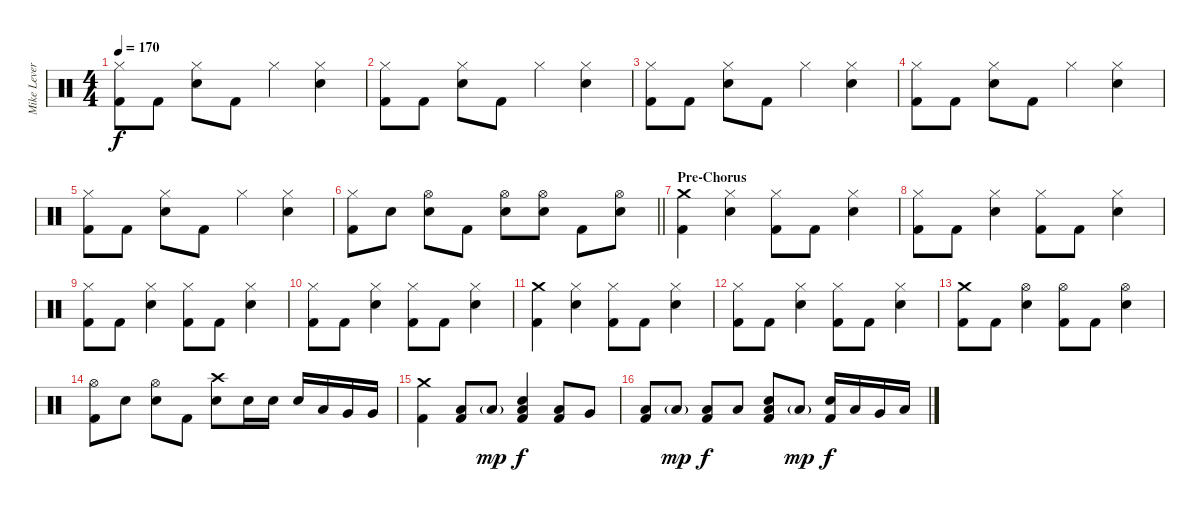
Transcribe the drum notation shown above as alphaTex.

\track ("Mike Leverence - Drums" "Mike Lever") {instrument percussion}
\staff {score}
\articulation defaults
\ts (4 4)
\tempo 170
\clef neutral
\ks c
("Hi-Hat (closed)" "Kick (hit) 2").8{dy f} "Kick (hit) 2".8 ("Hi-Hat (closed)" "Electric Snare (hit)").8 "Kick (hit) 2".8 "Hi-Hat (closed)".4 ("Hi-Hat (closed)" "Electric Snare (hit)").4 |
("Hi-Hat (closed)" "Kick (hit) 2").8 "Kick (hit) 2".8 ("Hi-Hat (closed)" "Electric Snare (hit)").8 "Kick (hit) 2".8 "Hi-Hat (closed)".4 ("Hi-Hat (closed)" "Electric Snare (hit)").4 |
("Hi-Hat (closed)" "Kick (hit) 2").8 "Kick (hit) 2".8 ("Hi-Hat (closed)" "Electric Snare (hit)").8 "Kick (hit) 2".8 "Hi-Hat (closed)".4 ("Hi-Hat (closed)" "Electric Snare (hit)").4 |
("Hi-Hat (closed)" "Kick (hit) 2").8 "Kick (hit) 2".8 ("Hi-Hat (closed)" "Electric Snare (hit)").8 "Kick (hit) 2".8 "Hi-Hat (closed)".4 ("Hi-Hat (closed)" "Electric Snare (hit)").4 |
("Hi-Hat (closed)" "Kick (hit) 2").8 "Kick (hit) 2".8 ("Hi-Hat (closed)" "Electric Snare (hit)").8 "Kick (hit) 2".8 "Hi-Hat (closed)".4 ("Hi-Hat (closed)" "Electric Snare (hit)").4 |
\barLineRight lightlight
("Hi-Hat (closed)" "Kick (hit) 2").8 "Electric Snare (hit)".8 ("Hi-Hat (open)" "Electric Snare (hit)").8 "Kick (hit) 2".8 ("Hi-Hat (open)" "Electric Snare (hit)").8 ("Hi-Hat (open)" "Electric Snare (hit)").8 "Kick (hit) 2".8 ("Hi-Hat (open)" "Electric Snare (hit)").8 |
\section ("" "Pre-Chorus")
("Crash medium (hit)" "Kick (hit) 2").4 ("Hi-Hat (closed)" "Electric Snare (hit)").4 ("Hi-Hat (closed)" "Kick (hit) 2").8 "Kick (hit) 2".8 ("Hi-Hat (closed)" "Electric Snare (hit)").4 |
("Hi-Hat (closed)" "Kick (hit) 2").8 "Kick (hit) 2".8 ("Hi-Hat (closed)" "Electric Snare (hit)").4 ("Hi-Hat (closed)" "Kick (hit) 2").8 "Kick (hit) 2".8 ("Hi-Hat (closed)" "Electric Snare (hit)").4 |
("Hi-Hat (closed)" "Kick (hit) 2").8 "Kick (hit) 2".8 ("Hi-Hat (closed)" "Electric Snare (hit)").4 ("Hi-Hat (closed)" "Kick (hit) 2").8 "Kick (hit) 2".8 ("Hi-Hat (closed)" "Electric Snare (hit)").4 |
("Hi-Hat (closed)" "Kick (hit) 2").8 "Kick (hit) 2".8 ("Hi-Hat (closed)" "Electric Snare (hit)").4 ("Hi-Hat (closed)" "Kick (hit) 2").8 "Kick (hit) 2".8 ("Hi-Hat (closed)" "Electric Snare (hit)").4 |
("Crash medium (hit)" "Kick (hit) 2").4 ("Hi-Hat (closed)" "Electric Snare (hit)").4 ("Hi-Hat (closed)" "Kick (hit) 2").8 "Kick (hit) 2".8 ("Hi-Hat (closed)" "Electric Snare (hit)").4 |
("Hi-Hat (closed)" "Kick (hit) 2").8 "Kick (hit) 2".8 ("Hi-Hat (closed)" "Electric Snare (hit)").4 ("Hi-Hat (closed)" "Kick (hit) 2").8 "Kick (hit) 2".8 ("Hi-Hat (closed)" "Electric Snare (hit)").4 |
("Crash medium (hit)" "Kick (hit) 2").8 "Kick (hit) 2".8 ("Hi-Hat (open)" "Electric Snare (hit)").4 ("Hi-Hat (open)" "Kick (hit) 2").8 "Kick (hit) 2".8 ("Hi-Hat (open)" "Electric Snare (hit)").4 |
("Hi-Hat (open)" "Kick (hit) 2").8 "Electric Snare (hit)".8 ("Hi-Hat (open)" "Electric Snare (hit)").8 "Kick (hit) 2".8 ("Crash high (hit)" "Electric Snare (hit)").8 "Electric Snare (hit)".16 "Electric Snare (hit)".16 "Electric Snare (hit)".16 "Low Tom (hit)".16 "Very Low Tom (hit)".16 "Very Low Tom (hit)".16 |
("Crash medium (hit)" "Kick (hit) 2").4 ("Low Floor Tom (hit)" "Kick (hit) 2").8 "Low Floor Tom (hit)"{g}.8{dy mp} ("Electric Snare (hit)" "Low Floor Tom (hit)" "Kick (hit) 2").4{dy f} ("Low Floor Tom (hit)" "Kick (hit) 2").8 "Very Low Tom (hit)".8 |
("Low Floor Tom (hit)" "Kick (hit) 2").8 "Low Floor Tom (hit)"{g}.8{dy mp} ("Low Floor Tom (hit)" "Kick (hit) 2").8{dy f} "Low Tom (hit)".8 ("Electric Snare (hit)" "Low Floor Tom (hit)" "Kick (hit) 2").8 "Low Floor Tom (hit)"{g}.8{dy mp} ("Electric Snare (hit)" "Kick (hit) 2").16{dy f} "Low Tom (hit)".16 "Very Low Tom (hit)".16 "Low Floor Tom (hit)".16
